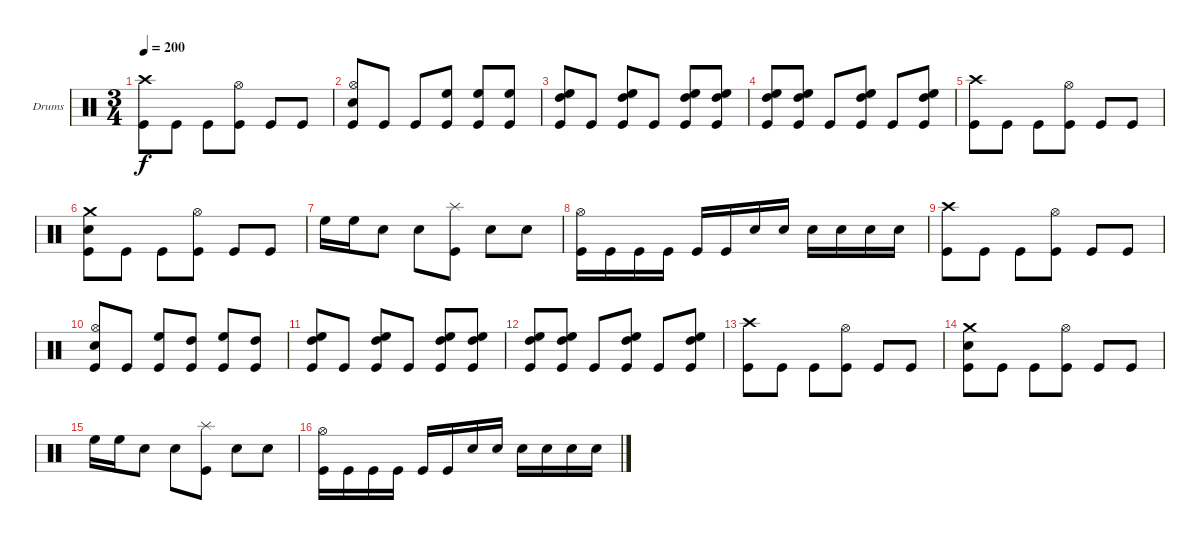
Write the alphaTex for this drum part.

\bracketExtendMode groupsimilarinstruments
\firstSystemTrackNameOrientation horizontal
\otherSystemsTrackNameOrientation horizontal
\track ("Drumkit" "Drums") {instrument percussion}
\staff {score}
\articulation defaults
\ts (3 4)
\tempo 200
\clef neutral
\ks c
("Crash high (hit)" "Kick (hit)").8{dy f} "Kick (hit)".8 "Kick (hit)".8 ("Hi-Hat (open)" "Kick (hit)").8 "Kick (hit)".8 "Kick (hit)".8 |
("Hi-Hat (open)" "Snare (hit) 2" "Kick (hit)").8 "Kick (hit)".8 "Kick (hit)".8 ("High Floor Tom (hit)" "Kick (hit)").8 ("High Floor Tom (hit)" "Kick (hit)").8 ("High Floor Tom (hit)" "Kick (hit)").8 |
("High Tom (hit)" "High Floor Tom (hit)" "Kick (hit)").8 "Kick (hit)".8 ("High Tom (hit)" "High Floor Tom (hit)" "Kick (hit)").8 "Kick (hit)".8 ("High Tom (hit)" "High Floor Tom (hit)" "Kick (hit)").8 ("High Tom (hit)" "High Floor Tom (hit)" "Kick (hit)").8 |
("High Tom (hit)" "High Floor Tom (hit)" "Kick (hit)").8 ("High Tom (hit)" "High Floor Tom (hit)" "Kick (hit)").8 "Kick (hit)".8 ("High Tom (hit)" "High Floor Tom (hit)" "Kick (hit)").8 "Kick (hit)".8 ("High Tom (hit)" "High Floor Tom (hit)" "Kick (hit)").8 |
("Crash high (hit)" "Kick (hit)").8 "Kick (hit)".8 "Kick (hit)".8 ("Hi-Hat (open)" "Kick (hit)").8 "Kick (hit)".8 "Kick (hit)".8 |
("Crash medium (hit)" "Snare (hit) 2" "Kick (hit)").8 "Kick (hit)".8 "Kick (hit)".8 ("Hi-Hat (open)" "Kick (hit)").8 "Kick (hit)".8 "Kick (hit)".8 |
"High Floor Tom (hit)".16 "High Floor Tom (hit)".16 "Snare (hit) 2".8 "Snare (hit) 2".8 ("Splash (hit)" "Kick (hit)").8 "Snare (hit) 2".8 "Snare (hit) 2".8 |
("Hi-Hat (open)" "Kick (hit)").16 "Kick (hit)".16 "Kick (hit)".16 "Kick (hit)".16 "Kick (hit)".16 "Kick (hit)".16 "Snare (hit) 2".16 "Snare (hit) 2".16 "Snare (hit) 2".16 "Snare (hit) 2".16 "Snare (hit) 2".16 "Snare (hit) 2".16 |
("Crash high (hit)" "Kick (hit)").8 "Kick (hit)".8 "Kick (hit)".8 ("Hi-Hat (open)" "Kick (hit)").8 "Kick (hit)".8 "Kick (hit)".8 |
("Hi-Hat (open)" "Snare (hit) 2" "Kick (hit)").8 "Kick (hit)".8 ("High Floor Tom (hit)" "Kick (hit)").8 ("High Tom (hit)" "Kick (hit)").8 ("High Floor Tom (hit)" "Kick (hit)").8 ("High Tom (hit)" "Kick (hit)").8 |
("High Tom (hit)" "High Floor Tom (hit)" "Kick (hit)").8 "Kick (hit)".8 ("High Tom (hit)" "High Floor Tom (hit)" "Kick (hit)").8 "Kick (hit)".8 ("High Tom (hit)" "High Floor Tom (hit)" "Kick (hit)").8 ("High Tom (hit)" "High Floor Tom (hit)" "Kick (hit)").8 |
("High Tom (hit)" "High Floor Tom (hit)" "Kick (hit)").8 ("High Tom (hit)" "High Floor Tom (hit)" "Kick (hit)").8 "Kick (hit)".8 ("High Tom (hit)" "High Floor Tom (hit)" "Kick (hit)").8 "Kick (hit)".8 ("High Tom (hit)" "High Floor Tom (hit)" "Kick (hit)").8 |
("Crash high (hit)" "Kick (hit)").8 "Kick (hit)".8 "Kick (hit)".8 ("Hi-Hat (open)" "Kick (hit)").8 "Kick (hit)".8 "Kick (hit)".8 |
("Crash medium (hit)" "Snare (hit) 2" "Kick (hit)").8 "Kick (hit)".8 "Kick (hit)".8 ("Hi-Hat (open)" "Kick (hit)").8 "Kick (hit)".8 "Kick (hit)".8 |
"High Floor Tom (hit)".16 "High Floor Tom (hit)".16 "Snare (hit) 2".8 "Snare (hit) 2".8 ("Splash (hit)" "Kick (hit)").8 "Snare (hit) 2".8 "Snare (hit) 2".8 |
("Hi-Hat (open)" "Kick (hit)").16 "Kick (hit)".16 "Kick (hit)".16 "Kick (hit)".16 "Kick (hit)".16 "Kick (hit)".16 "Snare (hit) 2".16 "Snare (hit) 2".16 "Snare (hit) 2".16 "Snare (hit) 2".16 "Snare (hit) 2".16 "Snare (hit) 2".16
